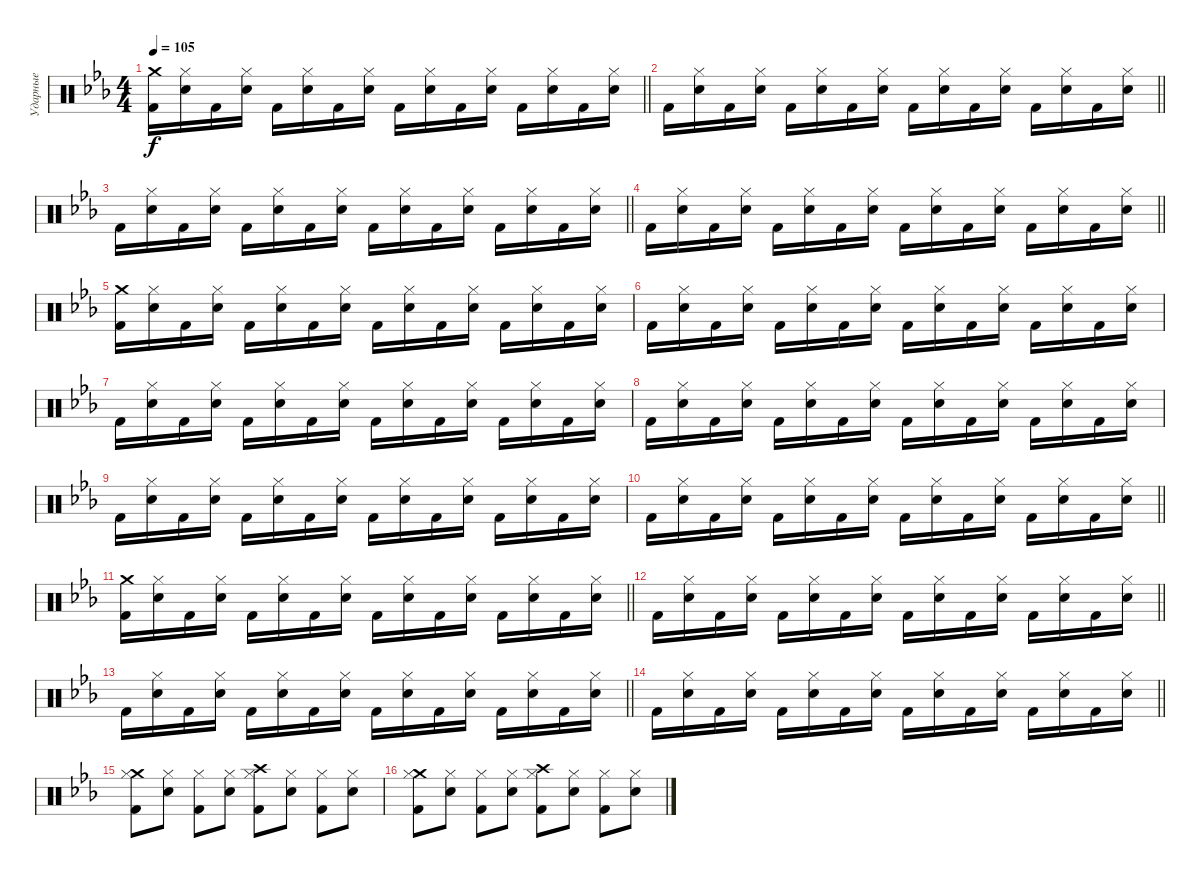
\track ("Ударные" "Ударные") {instrument percussion}
\staff {score}
\articulation defaults
\ts (4 4)
\section ("" "")
\tempo 105
\clef neutral
\barLineRight lightlight
\ks cminor
("Crash medium (hit)" "Kick (hit) 2").16{dy f} ("Electric Snare (hit)" "Hi-Hat (closed)").16 "Kick (hit) 2".16 ("Electric Snare (hit)" "Hi-Hat (closed)").16 "Kick (hit) 2".16 ("Electric Snare (hit)" "Hi-Hat (closed)").16 "Kick (hit) 2".16 ("Electric Snare (hit)" "Hi-Hat (closed)").16 "Kick (hit) 2".16 ("Electric Snare (hit)" "Hi-Hat (closed)").16 "Kick (hit) 2".16 ("Electric Snare (hit)" "Hi-Hat (closed)").16 "Kick (hit) 2".16 ("Electric Snare (hit)" "Hi-Hat (closed)").16 "Kick (hit) 2".16 ("Electric Snare (hit)" "Hi-Hat (closed)").16 |
\barLineRight lightlight "Kick (hit) 2".16
("Electric Snare (hit)" "Hi-Hat (closed)").16 "Kick (hit) 2".16 ("Electric Snare (hit)" "Hi-Hat (closed)").16 "Kick (hit) 2".16 ("Electric Snare (hit)" "Hi-Hat (closed)").16 "Kick (hit) 2".16 ("Electric Snare (hit)" "Hi-Hat (closed)").16 "Kick (hit) 2".16 ("Electric Snare (hit)" "Hi-Hat (closed)").16 "Kick (hit) 2".16 ("Electric Snare (hit)" "Hi-Hat (closed)").16 "Kick (hit) 2".16 ("Electric Snare (hit)" "Hi-Hat (closed)").16 "Kick (hit) 2".16 ("Electric Snare (hit)" "Hi-Hat (closed)").16 |
\barLineRight lightlight "Kick (hit) 2".16
("Electric Snare (hit)" "Hi-Hat (closed)").16 "Kick (hit) 2".16 ("Electric Snare (hit)" "Hi-Hat (closed)").16 "Kick (hit) 2".16 ("Electric Snare (hit)" "Hi-Hat (closed)").16 "Kick (hit) 2".16 ("Electric Snare (hit)" "Hi-Hat (closed)").16 "Kick (hit) 2".16 ("Electric Snare (hit)" "Hi-Hat (closed)").16 "Kick (hit) 2".16 ("Electric Snare (hit)" "Hi-Hat (closed)").16 "Kick (hit) 2".16 ("Electric Snare (hit)" "Hi-Hat (closed)").16 "Kick (hit) 2".16 ("Electric Snare (hit)" "Hi-Hat (closed)").16 |
\barLineRight lightlight "Kick (hit) 2".16
("Electric Snare (hit)" "Hi-Hat (closed)").16 "Kick (hit) 2".16 ("Electric Snare (hit)" "Hi-Hat (closed)").16 "Kick (hit) 2".16 ("Electric Snare (hit)" "Hi-Hat (closed)").16 "Kick (hit) 2".16 ("Electric Snare (hit)" "Hi-Hat (closed)").16 "Kick (hit) 2".16 ("Electric Snare (hit)" "Hi-Hat (closed)").16 "Kick (hit) 2".16 ("Electric Snare (hit)" "Hi-Hat (closed)").16 "Kick (hit) 2".16 ("Electric Snare (hit)" "Hi-Hat (closed)").16 "Kick (hit) 2".16 ("Electric Snare (hit)" "Hi-Hat (closed)").16 |
\section ("" "")
("Crash medium (hit)" "Kick (hit) 2").16 ("Electric Snare (hit)" "Hi-Hat (closed)").16 "Kick (hit) 2".16 ("Electric Snare (hit)" "Hi-Hat (closed)").16 "Kick (hit) 2".16 ("Electric Snare (hit)" "Hi-Hat (closed)").16 "Kick (hit) 2".16 ("Electric Snare (hit)" "Hi-Hat (closed)").16 "Kick (hit) 2".16 ("Electric Snare (hit)" "Hi-Hat (closed)").16 "Kick (hit) 2".16 ("Electric Snare (hit)" "Hi-Hat (closed)").16 "Kick (hit) 2".16 ("Electric Snare (hit)" "Hi-Hat (closed)").16 "Kick (hit) 2".16 ("Electric Snare (hit)" "Hi-Hat (closed)").16 |
"Kick (hit) 2".16 ("Electric Snare (hit)" "Hi-Hat (closed)").16 "Kick (hit) 2".16 ("Electric Snare (hit)" "Hi-Hat (closed)").16 "Kick (hit) 2".16 ("Electric Snare (hit)" "Hi-Hat (closed)").16 "Kick (hit) 2".16 ("Electric Snare (hit)" "Hi-Hat (closed)").16 "Kick (hit) 2".16 ("Electric Snare (hit)" "Hi-Hat (closed)").16 "Kick (hit) 2".16 ("Electric Snare (hit)" "Hi-Hat (closed)").16 "Kick (hit) 2".16 ("Electric Snare (hit)" "Hi-Hat (closed)").16 "Kick (hit) 2".16 ("Electric Snare (hit)" "Hi-Hat (closed)").16 |
"Kick (hit) 2".16 ("Electric Snare (hit)" "Hi-Hat (closed)").16 "Kick (hit) 2".16 ("Electric Snare (hit)" "Hi-Hat (closed)").16 "Kick (hit) 2".16 ("Electric Snare (hit)" "Hi-Hat (closed)").16 "Kick (hit) 2".16 ("Electric Snare (hit)" "Hi-Hat (closed)").16 "Kick (hit) 2".16 ("Electric Snare (hit)" "Hi-Hat (closed)").16 "Kick (hit) 2".16 ("Electric Snare (hit)" "Hi-Hat (closed)").16 "Kick (hit) 2".16 ("Electric Snare (hit)" "Hi-Hat (closed)").16 "Kick (hit) 2".16 ("Electric Snare (hit)" "Hi-Hat (closed)").16 |
"Kick (hit) 2".16 ("Electric Snare (hit)" "Hi-Hat (closed)").16 "Kick (hit) 2".16 ("Electric Snare (hit)" "Hi-Hat (closed)").16 "Kick (hit) 2".16 ("Electric Snare (hit)" "Hi-Hat (closed)").16 "Kick (hit) 2".16 ("Electric Snare (hit)" "Hi-Hat (closed)").16 "Kick (hit) 2".16 ("Electric Snare (hit)" "Hi-Hat (closed)").16 "Kick (hit) 2".16 ("Electric Snare (hit)" "Hi-Hat (closed)").16 "Kick (hit) 2".16 ("Electric Snare (hit)" "Hi-Hat (closed)").16 "Kick (hit) 2".16 ("Electric Snare (hit)" "Hi-Hat (closed)").16 |
"Kick (hit) 2".16 ("Electric Snare (hit)" "Hi-Hat (closed)").16 "Kick (hit) 2".16 ("Electric Snare (hit)" "Hi-Hat (closed)").16 "Kick (hit) 2".16 ("Electric Snare (hit)" "Hi-Hat (closed)").16 "Kick (hit) 2".16 ("Electric Snare (hit)" "Hi-Hat (closed)").16 "Kick (hit) 2".16 ("Electric Snare (hit)" "Hi-Hat (closed)").16 "Kick (hit) 2".16 ("Electric Snare (hit)" "Hi-Hat (closed)").16 "Kick (hit) 2".16 ("Electric Snare (hit)" "Hi-Hat (closed)").16 "Kick (hit) 2".16 ("Electric Snare (hit)" "Hi-Hat (closed)").16 |
\barLineRight lightlight "Kick (hit) 2".16
("Electric Snare (hit)" "Hi-Hat (closed)").16 "Kick (hit) 2".16 ("Electric Snare (hit)" "Hi-Hat (closed)").16 "Kick (hit) 2".16 ("Electric Snare (hit)" "Hi-Hat (closed)").16 "Kick (hit) 2".16 ("Electric Snare (hit)" "Hi-Hat (closed)").16 "Kick (hit) 2".16 ("Electric Snare (hit)" "Hi-Hat (closed)").16 "Kick (hit) 2".16 ("Electric Snare (hit)" "Hi-Hat (closed)").16 "Kick (hit) 2".16 ("Electric Snare (hit)" "Hi-Hat (closed)").16 "Kick (hit) 2".16 ("Electric Snare (hit)" "Hi-Hat (closed)").16 |
\section ("" "")
\barLineRight lightlight
("Crash medium (hit)" "Kick (hit) 2").16 ("Electric Snare (hit)" "Hi-Hat (closed)").16 "Kick (hit) 2".16 ("Electric Snare (hit)" "Hi-Hat (closed)").16 "Kick (hit) 2".16 ("Electric Snare (hit)" "Hi-Hat (closed)").16 "Kick (hit) 2".16 ("Electric Snare (hit)" "Hi-Hat (closed)").16 "Kick (hit) 2".16 ("Electric Snare (hit)" "Hi-Hat (closed)").16 "Kick (hit) 2".16 ("Electric Snare (hit)" "Hi-Hat (closed)").16 "Kick (hit) 2".16 ("Electric Snare (hit)" "Hi-Hat (closed)").16 "Kick (hit) 2".16 ("Electric Snare (hit)" "Hi-Hat (closed)").16 |
\barLineRight lightlight "Kick (hit) 2".16
("Electric Snare (hit)" "Hi-Hat (closed)").16 "Kick (hit) 2".16 ("Electric Snare (hit)" "Hi-Hat (closed)").16 "Kick (hit) 2".16 ("Electric Snare (hit)" "Hi-Hat (closed)").16 "Kick (hit) 2".16 ("Electric Snare (hit)" "Hi-Hat (closed)").16 "Kick (hit) 2".16 ("Electric Snare (hit)" "Hi-Hat (closed)").16 "Kick (hit) 2".16 ("Electric Snare (hit)" "Hi-Hat (closed)").16 "Kick (hit) 2".16 ("Electric Snare (hit)" "Hi-Hat (closed)").16 "Kick (hit) 2".16 ("Electric Snare (hit)" "Hi-Hat (closed)").16 |
\barLineRight lightlight "Kick (hit) 2".16
("Electric Snare (hit)" "Hi-Hat (closed)").16 "Kick (hit) 2".16 ("Electric Snare (hit)" "Hi-Hat (closed)").16 "Kick (hit) 2".16 ("Electric Snare (hit)" "Hi-Hat (closed)").16 "Kick (hit) 2".16 ("Electric Snare (hit)" "Hi-Hat (closed)").16 "Kick (hit) 2".16 ("Electric Snare (hit)" "Hi-Hat (closed)").16 "Kick (hit) 2".16 ("Electric Snare (hit)" "Hi-Hat (closed)").16 "Kick (hit) 2".16 ("Electric Snare (hit)" "Hi-Hat (closed)").16 "Kick (hit) 2".16 ("Electric Snare (hit)" "Hi-Hat (closed)").16 |
\barLineRight lightlight "Kick (hit) 2".16
("Electric Snare (hit)" "Hi-Hat (closed)").16 "Kick (hit) 2".16 ("Electric Snare (hit)" "Hi-Hat (closed)").16 "Kick (hit) 2".16 ("Electric Snare (hit)" "Hi-Hat (closed)").16 "Kick (hit) 2".16 ("Electric Snare (hit)" "Hi-Hat (closed)").16 "Kick (hit) 2".16 ("Electric Snare (hit)" "Hi-Hat (closed)").16 "Kick (hit) 2".16 ("Electric Snare (hit)" "Hi-Hat (closed)").16 "Kick (hit) 2".16 ("Electric Snare (hit)" "Hi-Hat (closed)").16 "Kick (hit) 2".16 ("Electric Snare (hit)" "Hi-Hat (closed)").16 |
\section ("" "")
("Crash medium (hit)" "Kick (hit) 2" "Hi-Hat (closed)").8 ("Electric Snare (hit)" "Hi-Hat (closed)").8 ("Kick (hit) 2" "Hi-Hat (closed)").8 ("Electric Snare (hit)" "Hi-Hat (closed)").8 ("Crash high (hit)" "Kick (hit) 2" "Hi-Hat (closed)").8 ("Electric Snare (hit)" "Hi-Hat (closed)").8 ("Kick (hit) 2" "Hi-Hat (closed)").8 ("Electric Snare (hit)" "Hi-Hat (closed)").8 |
("Crash medium (hit)" "Kick (hit) 2" "Hi-Hat (closed)").8 ("Electric Snare (hit)" "Hi-Hat (closed)").8 ("Kick (hit) 2" "Hi-Hat (closed)").8 ("Electric Snare (hit)" "Hi-Hat (closed)").8 ("Crash high (hit)" "Kick (hit) 2" "Hi-Hat (closed)").8 ("Electric Snare (hit)" "Hi-Hat (closed)").8 ("Kick (hit) 2" "Hi-Hat (closed)").8 ("Electric Snare (hit)" "Hi-Hat (closed)").8
